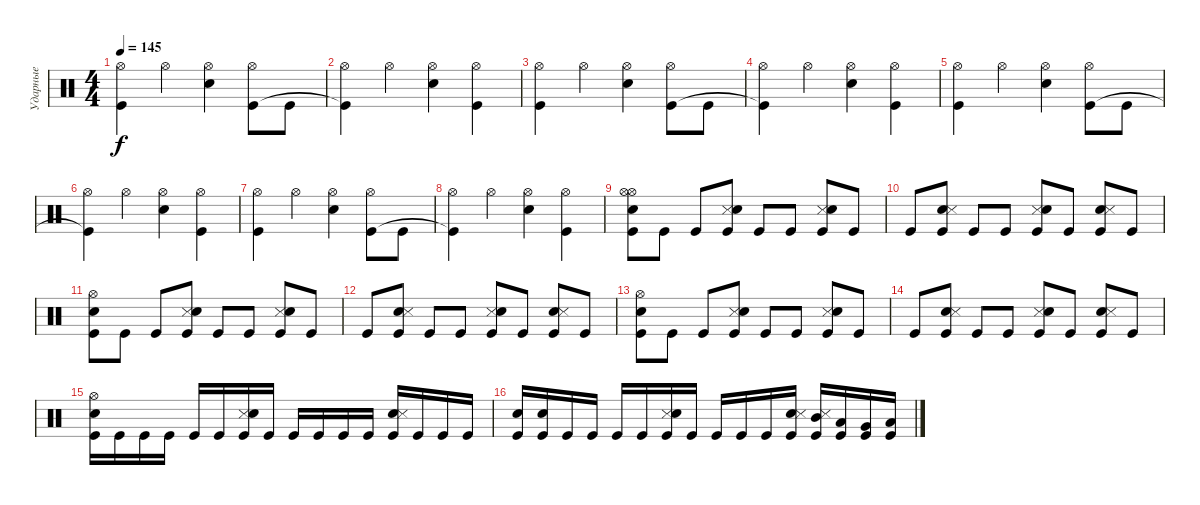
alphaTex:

\track ("Ударные" "Ударные") {instrument percussion}
\staff {score}
\articulation defaults
\ts (4 4)
\tempo 145
\clef neutral
\ks c
("Hi-Hat (open)" "Kick (hit)").4{dy f} "Hi-Hat (open)".4 ("Hi-Hat (open)" "Snare (hit) 2").4 ("Hi-Hat (open)" "Kick (hit)").8 "Kick (hit)".8 |
("Hi-Hat (open)" "Kick (hit)"{t}).4 "Hi-Hat (open)".4 ("Snare (hit) 2" "Hi-Hat (open)").4 ("Kick (hit)" "Hi-Hat (open)").4 |
("Hi-Hat (open)" "Kick (hit)").4 "Hi-Hat (open)".4 ("Hi-Hat (open)" "Snare (hit) 2").4 ("Hi-Hat (open)" "Kick (hit)").8 "Kick (hit)".8 |
("Hi-Hat (open)" "Kick (hit)"{t}).4 "Hi-Hat (open)".4 ("Snare (hit) 2" "Hi-Hat (open)").4 ("Kick (hit)" "Hi-Hat (open)").4 |
("Hi-Hat (open)" "Kick (hit)").4 "Hi-Hat (open)".4 ("Hi-Hat (open)" "Snare (hit) 2").4 ("Hi-Hat (open)" "Kick (hit)").8 "Kick (hit)".8 |
("Hi-Hat (open)" "Kick (hit)"{t}).4 "Hi-Hat (open)".4 ("Snare (hit) 2" "Hi-Hat (open)").4 ("Kick (hit)" "Hi-Hat (open)").4 |
("Hi-Hat (open)" "Kick (hit)").4 "Hi-Hat (open)".4 ("Hi-Hat (open)" "Snare (hit) 2").4 ("Hi-Hat (open)" "Kick (hit)").8 "Kick (hit)".8 |
("Hi-Hat (open)" "Kick (hit)"{t}).4 "Hi-Hat (open)".4 ("Snare (hit) 2" "Hi-Hat (open)").4 ("Kick (hit)" "Hi-Hat (open)").4 |
("Hi-Hat (open)" "Snare (hit) 2" "Kick (hit)" "Hi-Hat (open)").8 "Kick (hit)".8 "Kick (hit)".8 ("Snare (side stick) 3" "Snare (hit) 2" "Kick (hit)").8 "Kick (hit)".8 "Kick (hit)".8 ("Snare (side stick) 3" "Snare (hit) 2" "Kick (hit)").8 "Kick (hit)".8 |
"Kick (hit)".8 ("Snare (hit) 2" "Kick (hit)" "Snare (side stick) 3").8 "Kick (hit)".8 "Kick (hit)".8 ("Kick (hit)" "Snare (side stick) 3" "Snare (hit) 2").8 "Kick (hit)".8 ("Kick (hit)" "Snare (hit) 2" "Snare (side stick) 3").8 "Kick (hit)".8 |
("Hi-Hat (open)" "Snare (hit) 2" "Kick (hit)").8 "Kick (hit)".8 "Kick (hit)".8 ("Snare (side stick) 3" "Snare (hit) 2" "Kick (hit)").8 "Kick (hit)".8 "Kick (hit)".8 ("Snare (side stick) 3" "Snare (hit) 2" "Kick (hit)").8 "Kick (hit)".8 |
"Kick (hit)".8 ("Snare (hit) 2" "Kick (hit)" "Snare (side stick) 3").8 "Kick (hit)".8 "Kick (hit)".8 ("Kick (hit)" "Snare (side stick) 3" "Snare (hit) 2").8 "Kick (hit)".8 ("Kick (hit)" "Snare (hit) 2" "Snare (side stick) 3").8 "Kick (hit)".8 |
("Hi-Hat (open)" "Snare (hit) 2" "Kick (hit)").8 "Kick (hit)".8 "Kick (hit)".8 ("Snare (side stick) 3" "Snare (hit) 2" "Kick (hit)").8 "Kick (hit)".8 "Kick (hit)".8 ("Snare (side stick) 3" "Snare (hit) 2" "Kick (hit)").8 "Kick (hit)".8 |
"Kick (hit)".8 ("Snare (hit) 2" "Kick (hit)" "Snare (side stick) 3").8 "Kick (hit)".8 "Kick (hit)".8 ("Kick (hit)" "Snare (side stick) 3" "Snare (hit) 2").8 "Kick (hit)".8 ("Kick (hit)" "Snare (hit) 2" "Snare (side stick) 3").8 "Kick (hit)".8 |
("Hi-Hat (open)" "Snare (hit) 2" "Kick (hit)").16 "Kick (hit)".16 "Kick (hit)".16 "Kick (hit)".16 "Kick (hit)".16 "Kick (hit)".16 ("Snare (side stick) 3" "Snare (hit) 2" "Kick (hit)").16 "Kick (hit)".16 "Kick (hit)".16 "Kick (hit)".16 "Kick (hit)".16 "Kick (hit)".16 ("Snare (hit) 2" "Snare (side stick) 3" "Kick (hit)").16 "Kick (hit)".16 "Kick (hit)".16 "Kick (hit)".16 |
("Snare (hit) 2" "Kick (hit)").16 ("Snare (hit) 2" "Kick (hit)").16 "Kick (hit)".16 "Kick (hit)".16 "Kick (hit)".16 "Kick (hit)".16 ("Snare (side stick) 3" "Snare (hit) 2" "Kick (hit)").16 "Kick (hit)".16 "Kick (hit)".16 "Kick (hit)".16 "Kick (hit)".16 ("Snare (hit) 2" "Kick (hit)" "Snare (side stick) 3").16 ("Snare (side stick) 3" "Kick (hit)" "Mid Tom (hit)").16 ("Kick (hit)" "Low Tom (hit)").16 ("Kick (hit)" "Very Low Tom (hit)").16 ("Kick (hit)" "Low Floor Tom (hit)").16
